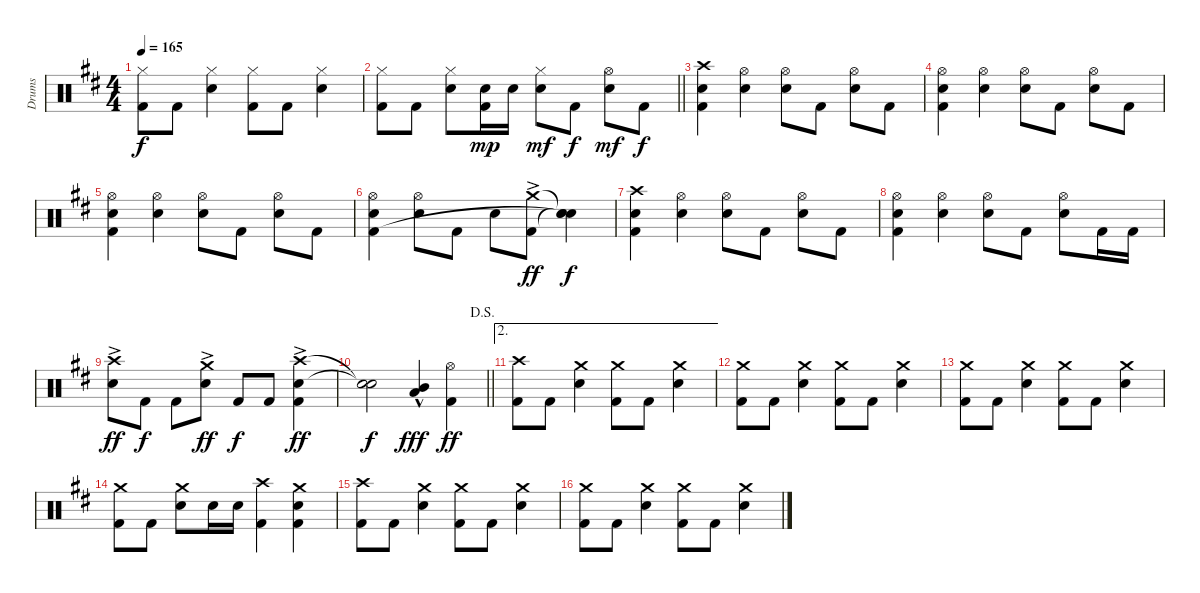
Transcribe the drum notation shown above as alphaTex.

\track ("Drums" "Drums") {instrument percussion}
\staff {score}
\articulation defaults
\ts (4 4)
\tempo 165
\clef neutral
\ks d
("Hi-Hat (closed)" "Kick (hit) 2").8{dy f} "Kick (hit) 2".8 ("Hi-Hat (closed)" "Electric Snare (hit)").4 ("Hi-Hat (closed)" "Kick (hit) 2").8 "Kick (hit) 2".8 ("Hi-Hat (closed)" "Electric Snare (hit)").4 |
\barLineRight lightlight
("Hi-Hat (closed)" "Kick (hit) 2").8 "Kick (hit) 2".8 ("Hi-Hat (closed)" "Electric Snare (hit)").8 ("Electric Snare (hit)" "Kick (hit) 2").16{dy mp} "Electric Snare (hit)".16 ("Hi-Hat (closed)" "Electric Snare (hit)").8{dy mf} "Kick (hit) 2".8{dy f} ("Hi-Hat (open)" "Electric Snare (hit)").8{dy mf} "Kick (hit) 2".8{dy f} |
("Crash high (hit)" "Electric Snare (hit)" "Kick (hit) 2").4 ("Hi-Hat (open)" "Electric Snare (hit)").4 ("Hi-Hat (open)" "Electric Snare (hit)").8 "Kick (hit) 2".8 ("Hi-Hat (open)" "Electric Snare (hit)").8 "Kick (hit) 2".8 |
("Hi-Hat (open)" "Electric Snare (hit)" "Kick (hit) 2").4 ("Hi-Hat (open)" "Electric Snare (hit)").4 ("Hi-Hat (open)" "Electric Snare (hit)").8 "Kick (hit) 2".8 ("Hi-Hat (open)" "Electric Snare (hit)").8 "Kick (hit) 2".8 |
("Hi-Hat (open)" "Electric Snare (hit)" "Kick (hit) 2").4 ("Hi-Hat (open)" "Electric Snare (hit)").4 ("Hi-Hat (open)" "Electric Snare (hit)").8 "Kick (hit) 2".8 ("Hi-Hat (open)" "Electric Snare (hit)").8 "Kick (hit) 2".8 |
("Hi-Hat (open)" "Electric Snare (hit)" "Kick (hit) 2").4 ("Hi-Hat (open)" "Electric Snare (hit)").8 "Kick (hit) 2".8 "Electric Snare (hit)".8 ("Crash medium (hit)"{ac} "Kick (hit) 2").8{dy ff} ("Snare (hit)"{t} "Snare (hit)"{t} "Snare (hit)"{t}).4{dy f} |
("Crash high (hit)" "Electric Snare (hit)" "Kick (hit) 2").4 ("Hi-Hat (open)" "Electric Snare (hit)").4 ("Hi-Hat (open)" "Electric Snare (hit)").8 "Kick (hit) 2".8 ("Hi-Hat (open)" "Electric Snare (hit)").8 "Kick (hit) 2".8 |
("Hi-Hat (open)" "Electric Snare (hit)" "Kick (hit) 2").4 ("Hi-Hat (open)" "Electric Snare (hit)").4 ("Hi-Hat (open)" "Electric Snare (hit)").8 "Kick (hit) 2".8 ("Hi-Hat (open)" "Electric Snare (hit)").8 "Kick (hit) 2".16 "Kick (hit) 2".16 |
("Crash high (hit)"{ac} "Electric Snare (hit)").8{dy ff} "Kick (hit) 2".8{dy f} "Kick (hit) 2".8 ("Crash medium (hit)"{ac} "Electric Snare (hit)").8{dy ff} "Kick (hit) 2".8{dy f} "Kick (hit) 2".8 ("Crash high (hit)"{ac} "Electric Snare (hit)" "Kick (hit) 2").4{dy ff} |
\jump dalsegno
\barLineRight lightlight
("Snare (hit)"{t} "Snare (hit)"{t}).2{dy f} ("Mid Tom (hit)"{hac} "Low Floor Tom (hit)"{hac}).4{dy fff} ("Hi-Hat (open)" "Kick (hit) 2").4{dy ff} |
\ae 2
("Crash high (hit)" "Kick (hit) 2").8 "Kick (hit) 2".8 ("Crash medium (hit)" "Electric Snare (hit)").4 ("Crash medium (hit)" "Kick (hit) 2").8 "Kick (hit) 2".8 ("Crash medium (hit)" "Electric Snare (hit)").4 |
("Crash medium (hit)" "Kick (hit) 2").8 "Kick (hit) 2".8 ("Crash medium (hit)" "Electric Snare (hit)").4 ("Crash medium (hit)" "Kick (hit) 2").8 "Kick (hit) 2".8 ("Crash medium (hit)" "Electric Snare (hit)").4 |
("Crash medium (hit)" "Kick (hit) 2").8 "Kick (hit) 2".8 ("Crash medium (hit)" "Electric Snare (hit)").4 ("Crash medium (hit)" "Kick (hit) 2").8 "Kick (hit) 2".8 ("Crash medium (hit)" "Electric Snare (hit)").4 |
("Crash medium (hit)" "Kick (hit) 2").8 "Kick (hit) 2".8 ("Crash medium (hit)" "Electric Snare (hit)").8 "Electric Snare (hit)".16 "Electric Snare (hit)".16 ("Crash high (hit)" "Kick (hit) 2").4 ("Crash medium (hit)" "Electric Snare (hit)" "Kick (hit) 2").4 |
("Crash high (hit)" "Kick (hit) 2").8 "Kick (hit) 2".8 ("Crash medium (hit)" "Electric Snare (hit)").4 ("Crash medium (hit)" "Kick (hit) 2").8 "Kick (hit) 2".8 ("Crash medium (hit)" "Electric Snare (hit)").4 |
("Crash medium (hit)" "Kick (hit) 2").8 "Kick (hit) 2".8 ("Crash medium (hit)" "Electric Snare (hit)").4 ("Crash medium (hit)" "Kick (hit) 2").8 "Kick (hit) 2".8 ("Crash medium (hit)" "Electric Snare (hit)").4
